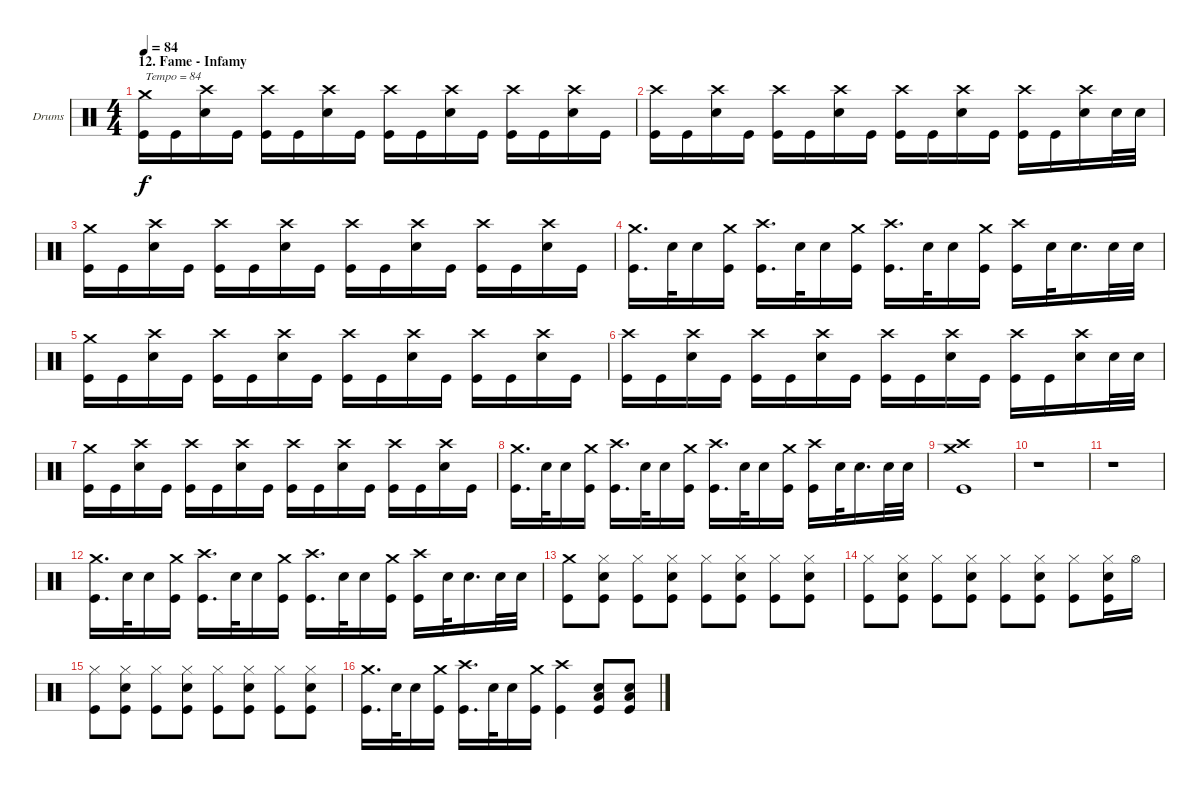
\bracketExtendMode groupsimilarinstruments
\firstSystemTrackNameOrientation horizontal
\otherSystemsTrackNameOrientation horizontal
\track ("Drumkit" "Drums") {solo instrument percussion}
\staff {score}
\articulation defaults
\ts (4 4)
\beaming (8 2 2 2 2)
\section ("" "12. Fame - Infamy")
\tempo 84
\clef neutral
\ks c
("Crash medium (hit)" "Kick (hit)").16{txt "Tempo = 84" dy f} "Kick (hit)".16 ("Crash high (hit)" "Snare (hit) 2").16 "Kick (hit)".16 ("Crash high (hit)" "Kick (hit)").16 "Kick (hit)".16 ("Crash high (hit)" "Snare (hit) 2").16 "Kick (hit)".16 ("Crash high (hit)" "Kick (hit)").16 "Kick (hit)".16 ("Crash high (hit)" "Snare (hit) 2").16 "Kick (hit)".16 ("Crash high (hit)" "Kick (hit)").16 "Kick (hit)".16 ("Crash high (hit)" "Snare (hit) 2").16 "Kick (hit)".16 |
("Crash high (hit)" "Kick (hit)").16 "Kick (hit)".16 ("Crash high (hit)" "Snare (hit) 2").16 "Kick (hit)".16 ("Crash high (hit)" "Kick (hit)").16 "Kick (hit)".16 ("Crash high (hit)" "Snare (hit) 2").16 "Kick (hit)".16 ("Crash high (hit)" "Kick (hit)").16 "Kick (hit)".16 ("Crash high (hit)" "Snare (hit) 2").16 "Kick (hit)".16 ("Crash high (hit)" "Kick (hit)").16 "Kick (hit)".16 ("Crash high (hit)" "Snare (hit) 2").16 "Snare (hit) 2".32 "Snare (hit) 2".32 |
("Crash medium (hit)" "Kick (hit)").16 "Kick (hit)".16 ("Crash high (hit)" "Snare (hit) 2").16 "Kick (hit)".16 ("Crash high (hit)" "Kick (hit)").16 "Kick (hit)".16 ("Crash high (hit)" "Snare (hit) 2").16 "Kick (hit)".16 ("Crash high (hit)" "Kick (hit)").16 "Kick (hit)".16 ("Crash high (hit)" "Snare (hit) 2").16 "Kick (hit)".16 ("Crash high (hit)" "Kick (hit)").16 "Kick (hit)".16 ("Crash high (hit)" "Snare (hit) 2").16 "Kick (hit)".16 |
("Crash medium (hit)" "Kick (hit)").16{d} "Snare (hit) 2".32 "Snare (hit) 2".16 ("Crash medium (hit)" "Kick (hit)").16 ("Crash high (hit)" "Kick (hit)").16{d} "Snare (hit) 2".32 "Snare (hit) 2".16 ("Crash medium (hit)" "Kick (hit)").16 ("Crash high (hit)" "Kick (hit)").16{d} "Snare (hit) 2".32 "Snare (hit) 2".16 ("Crash medium (hit)" "Kick (hit)").16 ("Crash high (hit)" "Kick (hit)").16 "Snare (hit) 2".32 "Snare (hit) 2".16{d} "Snare (hit) 2".32 "Snare (hit) 2".32 |
("Crash medium (hit)" "Kick (hit)").16 "Kick (hit)".16 ("Crash high (hit)" "Snare (hit) 2").16 "Kick (hit)".16 ("Crash high (hit)" "Kick (hit)").16 "Kick (hit)".16 ("Crash high (hit)" "Snare (hit) 2").16 "Kick (hit)".16 ("Crash high (hit)" "Kick (hit)").16 "Kick (hit)".16 ("Crash high (hit)" "Snare (hit) 2").16 "Kick (hit)".16 ("Crash high (hit)" "Kick (hit)").16 "Kick (hit)".16 ("Crash high (hit)" "Snare (hit) 2").16 "Kick (hit)".16 |
("Crash high (hit)" "Kick (hit)").16 "Kick (hit)".16 ("Crash high (hit)" "Snare (hit) 2").16 "Kick (hit)".16 ("Crash high (hit)" "Kick (hit)").16 "Kick (hit)".16 ("Crash high (hit)" "Snare (hit) 2").16 "Kick (hit)".16 ("Crash high (hit)" "Kick (hit)").16 "Kick (hit)".16 ("Crash high (hit)" "Snare (hit) 2").16 "Kick (hit)".16 ("Crash high (hit)" "Kick (hit)").16 "Kick (hit)".16 ("Crash high (hit)" "Snare (hit) 2").16 "Snare (hit) 2".32 "Snare (hit) 2".32 |
("Crash medium (hit)" "Kick (hit)").16 "Kick (hit)".16 ("Crash high (hit)" "Snare (hit) 2").16 "Kick (hit)".16 ("Crash high (hit)" "Kick (hit)").16 "Kick (hit)".16 ("Crash high (hit)" "Snare (hit) 2").16 "Kick (hit)".16 ("Crash high (hit)" "Kick (hit)").16 "Kick (hit)".16 ("Crash high (hit)" "Snare (hit) 2").16 "Kick (hit)".16 ("Crash high (hit)" "Kick (hit)").16 "Kick (hit)".16 ("Crash high (hit)" "Snare (hit) 2").16 "Kick (hit)".16 |
("Crash medium (hit)" "Kick (hit)").16{d} "Snare (hit) 2".32 "Snare (hit) 2".16 ("Crash medium (hit)" "Kick (hit)").16 ("Crash high (hit)" "Kick (hit)").16{d} "Snare (hit) 2".32 "Snare (hit) 2".16 ("Crash medium (hit)" "Kick (hit)").16 ("Crash high (hit)" "Kick (hit)").16{d} "Snare (hit) 2".32 "Snare (hit) 2".16 ("Crash medium (hit)" "Kick (hit)").16 ("Crash high (hit)" "Kick (hit)").16 "Snare (hit) 2".32 "Snare (hit) 2".16{d} "Snare (hit) 2".32 "Snare (hit) 2".32 |
("Crash medium (hit)" "Crash high (hit)" "Kick (hit)").1 |
r.1 |
r.1 |
("Crash medium (hit)" "Kick (hit)").16{d} "Snare (hit) 2".32 "Snare (hit) 2".16 ("Crash medium (hit)" "Kick (hit)").16 ("Crash high (hit)" "Kick (hit)").16{d} "Snare (hit) 2".32 "Snare (hit) 2".16 ("Crash medium (hit)" "Kick (hit)").16 ("Crash high (hit)" "Kick (hit)").16{d} "Snare (hit) 2".32 "Snare (hit) 2".16 ("Crash medium (hit)" "Kick (hit)").16 ("Crash high (hit)" "Kick (hit)").16 "Snare (hit) 2".32 "Snare (hit) 2".16{d} "Snare (hit) 2".32 "Snare (hit) 2".32 |
("Crash medium (hit)" "Kick (hit)").8 ("Hi-Hat (closed)" "Snare (hit) 2" "Kick (hit)").8 ("Hi-Hat (closed)" "Kick (hit)").8 ("Hi-Hat (closed)" "Snare (hit) 2" "Kick (hit)").8 ("Hi-Hat (closed)" "Kick (hit)").8 ("Hi-Hat (closed)" "Snare (hit) 2" "Kick (hit)").8 ("Hi-Hat (closed)" "Kick (hit)").8 ("Hi-Hat (closed)" "Snare (hit) 2" "Kick (hit)").8 |
("Hi-Hat (closed)" "Kick (hit)").8 ("Hi-Hat (closed)" "Snare (hit) 2" "Kick (hit)").8 ("Hi-Hat (closed)" "Kick (hit)").8 ("Hi-Hat (closed)" "Snare (hit) 2" "Kick (hit)").8 ("Hi-Hat (closed)" "Kick (hit)").8 ("Hi-Hat (closed)" "Snare (hit) 2" "Kick (hit)").8 ("Hi-Hat (closed)" "Kick (hit)").8 ("Hi-Hat (closed)" "Snare (hit) 2" "Kick (hit)").16 "Hi-Hat (open)".16 |
("Hi-Hat (closed)" "Kick (hit)").8 ("Hi-Hat (closed)" "Snare (hit) 2" "Kick (hit)").8 ("Hi-Hat (closed)" "Kick (hit)").8 ("Hi-Hat (closed)" "Snare (hit) 2" "Kick (hit)").8 ("Hi-Hat (closed)" "Kick (hit)").8 ("Hi-Hat (closed)" "Snare (hit) 2" "Kick (hit)").8 ("Hi-Hat (closed)" "Kick (hit)").8 ("Hi-Hat (closed)" "Snare (hit) 2" "Kick (hit)").8 |
("Crash medium (hit)" "Kick (hit)").16{d} "Snare (hit) 2".32 "Snare (hit) 2".16 ("Crash medium (hit)" "Kick (hit)").16 ("Crash high (hit)" "Kick (hit)").16{d} "Snare (hit) 2".32 "Snare (hit) 2".16 ("Crash medium (hit)" "Kick (hit)").16 ("Crash high (hit)" "Kick (hit)").4 ("Snare (hit) 2" "Low Tom (hit)" "Kick (hit)").8 ("Snare (hit) 2" "Low Tom (hit)" "Kick (hit)").8
